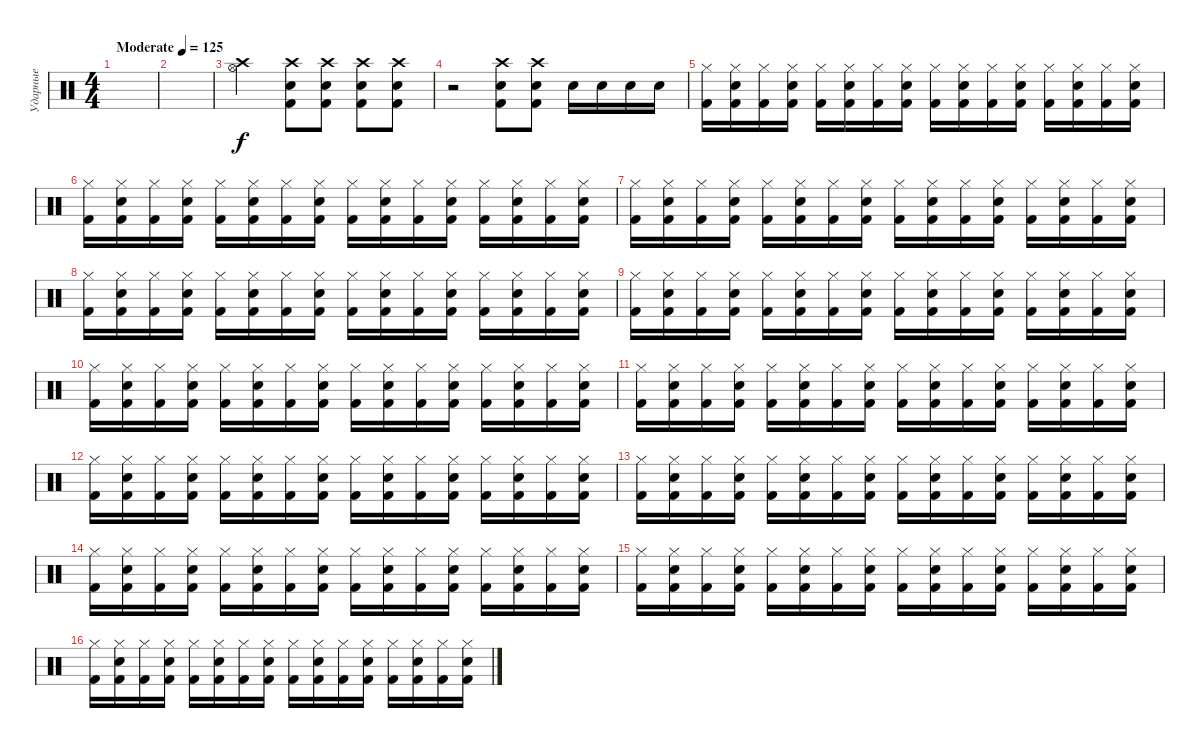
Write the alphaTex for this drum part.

\track ("Ударные" "Ударные") {instrument percussion}
\staff {score}
\articulation defaults
\ts (4 4)
\tempo (125 "Moderate")
\clef neutral
\ks c
|
|
("Crash high (hit)" "Hi-Hat (open)").2 ("Kick (hit) 2" "Snare (hit) 2" "Crash high (hit)").8 ("Kick (hit) 2" "Snare (hit) 2" "Crash high (hit)").8 ("Kick (hit) 2" "Snare (hit) 2" "Crash high (hit)").8 ("Kick (hit) 2" "Snare (hit) 2" "Crash high (hit)").8 |
r.2 ("Kick (hit) 2" "Snare (hit) 2" "Crash high (hit)").8 ("Kick (hit) 2" "Snare (hit) 2" "Crash high (hit)").8 "Snare (hit) 2".16 "Snare (hit) 2".16 "Snare (hit) 2".16 "Snare (hit) 2".16 |
("Kick (hit) 2" "Hi-Hat (closed)").16 ("Kick (hit) 2" "Hi-Hat (closed)" "Electric Snare (hit)").16 ("Kick (hit) 2" "Hi-Hat (closed)").16 ("Kick (hit) 2" "Hi-Hat (closed)" "Electric Snare (hit)").16 ("Kick (hit) 2" "Hi-Hat (closed)").16 ("Kick (hit) 2" "Hi-Hat (closed)" "Electric Snare (hit)").16 ("Kick (hit) 2" "Hi-Hat (closed)").16 ("Kick (hit) 2" "Hi-Hat (closed)" "Electric Snare (hit)").16 ("Kick (hit) 2" "Hi-Hat (closed)").16 ("Kick (hit) 2" "Hi-Hat (closed)" "Electric Snare (hit)").16 ("Kick (hit) 2" "Hi-Hat (closed)").16 ("Kick (hit) 2" "Hi-Hat (closed)" "Electric Snare (hit)").16 ("Kick (hit) 2" "Hi-Hat (closed)").16 ("Kick (hit) 2" "Hi-Hat (closed)" "Electric Snare (hit)").16 ("Kick (hit) 2" "Hi-Hat (closed)").16 ("Kick (hit) 2" "Hi-Hat (closed)" "Electric Snare (hit)").16 |
("Kick (hit) 2" "Hi-Hat (closed)").16 ("Kick (hit) 2" "Hi-Hat (closed)" "Electric Snare (hit)").16 ("Kick (hit) 2" "Hi-Hat (closed)").16 ("Kick (hit) 2" "Hi-Hat (closed)" "Electric Snare (hit)").16 ("Kick (hit) 2" "Hi-Hat (closed)").16 ("Kick (hit) 2" "Hi-Hat (closed)" "Electric Snare (hit)").16 ("Kick (hit) 2" "Hi-Hat (closed)").16 ("Kick (hit) 2" "Hi-Hat (closed)" "Electric Snare (hit)").16 ("Kick (hit) 2" "Hi-Hat (closed)").16 ("Kick (hit) 2" "Hi-Hat (closed)" "Electric Snare (hit)").16 ("Kick (hit) 2" "Hi-Hat (closed)").16 ("Kick (hit) 2" "Hi-Hat (closed)" "Electric Snare (hit)").16 ("Kick (hit) 2" "Hi-Hat (closed)").16 ("Kick (hit) 2" "Hi-Hat (closed)" "Electric Snare (hit)").16 ("Kick (hit) 2" "Hi-Hat (closed)").16 ("Kick (hit) 2" "Hi-Hat (closed)" "Electric Snare (hit)").16 |
("Kick (hit) 2" "Hi-Hat (closed)").16 ("Kick (hit) 2" "Hi-Hat (closed)" "Electric Snare (hit)").16 ("Kick (hit) 2" "Hi-Hat (closed)").16 ("Kick (hit) 2" "Hi-Hat (closed)" "Electric Snare (hit)").16 ("Kick (hit) 2" "Hi-Hat (closed)").16 ("Kick (hit) 2" "Hi-Hat (closed)" "Electric Snare (hit)").16 ("Kick (hit) 2" "Hi-Hat (closed)").16 ("Kick (hit) 2" "Hi-Hat (closed)" "Electric Snare (hit)").16 ("Kick (hit) 2" "Hi-Hat (closed)").16 ("Kick (hit) 2" "Hi-Hat (closed)" "Electric Snare (hit)").16 ("Kick (hit) 2" "Hi-Hat (closed)").16 ("Kick (hit) 2" "Hi-Hat (closed)" "Electric Snare (hit)").16 ("Kick (hit) 2" "Hi-Hat (closed)").16 ("Kick (hit) 2" "Hi-Hat (closed)" "Electric Snare (hit)").16 ("Kick (hit) 2" "Hi-Hat (closed)").16 ("Kick (hit) 2" "Hi-Hat (closed)" "Electric Snare (hit)").16 |
("Kick (hit) 2" "Hi-Hat (closed)").16 ("Kick (hit) 2" "Hi-Hat (closed)" "Electric Snare (hit)").16 ("Kick (hit) 2" "Hi-Hat (closed)").16 ("Kick (hit) 2" "Hi-Hat (closed)" "Electric Snare (hit)").16 ("Kick (hit) 2" "Hi-Hat (closed)").16 ("Kick (hit) 2" "Hi-Hat (closed)" "Electric Snare (hit)").16 ("Kick (hit) 2" "Hi-Hat (closed)").16 ("Kick (hit) 2" "Hi-Hat (closed)" "Electric Snare (hit)").16 ("Kick (hit) 2" "Hi-Hat (closed)").16 ("Kick (hit) 2" "Hi-Hat (closed)" "Electric Snare (hit)").16 ("Kick (hit) 2" "Hi-Hat (closed)").16 ("Kick (hit) 2" "Hi-Hat (closed)" "Electric Snare (hit)").16 ("Kick (hit) 2" "Hi-Hat (closed)").16 ("Kick (hit) 2" "Hi-Hat (closed)" "Electric Snare (hit)").16 ("Kick (hit) 2" "Hi-Hat (closed)").16 ("Kick (hit) 2" "Hi-Hat (closed)" "Electric Snare (hit)").16 |
("Kick (hit) 2" "Hi-Hat (closed)").16 ("Kick (hit) 2" "Hi-Hat (closed)" "Electric Snare (hit)").16 ("Kick (hit) 2" "Hi-Hat (closed)").16 ("Kick (hit) 2" "Hi-Hat (closed)" "Electric Snare (hit)").16 ("Kick (hit) 2" "Hi-Hat (closed)").16 ("Kick (hit) 2" "Hi-Hat (closed)" "Electric Snare (hit)").16 ("Kick (hit) 2" "Hi-Hat (closed)").16 ("Kick (hit) 2" "Hi-Hat (closed)" "Electric Snare (hit)").16 ("Kick (hit) 2" "Hi-Hat (closed)").16 ("Kick (hit) 2" "Hi-Hat (closed)" "Electric Snare (hit)").16 ("Kick (hit) 2" "Hi-Hat (closed)").16 ("Kick (hit) 2" "Hi-Hat (closed)" "Electric Snare (hit)").16 ("Kick (hit) 2" "Hi-Hat (closed)").16 ("Kick (hit) 2" "Hi-Hat (closed)" "Electric Snare (hit)").16 ("Kick (hit) 2" "Hi-Hat (closed)").16 ("Kick (hit) 2" "Hi-Hat (closed)" "Electric Snare (hit)").16 |
("Kick (hit) 2" "Hi-Hat (closed)").16 ("Kick (hit) 2" "Hi-Hat (closed)" "Electric Snare (hit)").16 ("Kick (hit) 2" "Hi-Hat (closed)").16 ("Kick (hit) 2" "Hi-Hat (closed)" "Electric Snare (hit)").16 ("Kick (hit) 2" "Hi-Hat (closed)").16 ("Kick (hit) 2" "Hi-Hat (closed)" "Electric Snare (hit)").16 ("Kick (hit) 2" "Hi-Hat (closed)").16 ("Kick (hit) 2" "Hi-Hat (closed)" "Electric Snare (hit)").16 ("Kick (hit) 2" "Hi-Hat (closed)").16 ("Kick (hit) 2" "Hi-Hat (closed)" "Electric Snare (hit)").16 ("Kick (hit) 2" "Hi-Hat (closed)").16 ("Kick (hit) 2" "Hi-Hat (closed)" "Electric Snare (hit)").16 ("Kick (hit) 2" "Hi-Hat (closed)").16 ("Kick (hit) 2" "Hi-Hat (closed)" "Electric Snare (hit)").16 ("Kick (hit) 2" "Hi-Hat (closed)").16 ("Kick (hit) 2" "Hi-Hat (closed)" "Electric Snare (hit)").16 |
("Kick (hit) 2" "Hi-Hat (closed)").16 ("Kick (hit) 2" "Hi-Hat (closed)" "Electric Snare (hit)").16 ("Kick (hit) 2" "Hi-Hat (closed)").16 ("Kick (hit) 2" "Hi-Hat (closed)" "Electric Snare (hit)").16 ("Kick (hit) 2" "Hi-Hat (closed)").16 ("Kick (hit) 2" "Hi-Hat (closed)" "Electric Snare (hit)").16 ("Kick (hit) 2" "Hi-Hat (closed)").16 ("Kick (hit) 2" "Hi-Hat (closed)" "Electric Snare (hit)").16 ("Kick (hit) 2" "Hi-Hat (closed)").16 ("Kick (hit) 2" "Hi-Hat (closed)" "Electric Snare (hit)").16 ("Kick (hit) 2" "Hi-Hat (closed)").16 ("Kick (hit) 2" "Hi-Hat (closed)" "Electric Snare (hit)").16 ("Kick (hit) 2" "Hi-Hat (closed)").16 ("Kick (hit) 2" "Hi-Hat (closed)" "Electric Snare (hit)").16 ("Kick (hit) 2" "Hi-Hat (closed)").16 ("Kick (hit) 2" "Hi-Hat (closed)" "Electric Snare (hit)").16 |
("Kick (hit) 2" "Hi-Hat (closed)").16 ("Kick (hit) 2" "Hi-Hat (closed)" "Electric Snare (hit)").16 ("Kick (hit) 2" "Hi-Hat (closed)").16 ("Kick (hit) 2" "Hi-Hat (closed)" "Electric Snare (hit)").16 ("Kick (hit) 2" "Hi-Hat (closed)").16 ("Kick (hit) 2" "Hi-Hat (closed)" "Electric Snare (hit)").16 ("Kick (hit) 2" "Hi-Hat (closed)").16 ("Kick (hit) 2" "Hi-Hat (closed)" "Electric Snare (hit)").16 ("Kick (hit) 2" "Hi-Hat (closed)").16 ("Kick (hit) 2" "Hi-Hat (closed)" "Electric Snare (hit)").16 ("Kick (hit) 2" "Hi-Hat (closed)").16 ("Kick (hit) 2" "Hi-Hat (closed)" "Electric Snare (hit)").16 ("Kick (hit) 2" "Hi-Hat (closed)").16 ("Kick (hit) 2" "Hi-Hat (closed)" "Electric Snare (hit)").16 ("Kick (hit) 2" "Hi-Hat (closed)").16 ("Kick (hit) 2" "Hi-Hat (closed)" "Electric Snare (hit)").16 |
("Kick (hit) 2" "Hi-Hat (closed)").16 ("Kick (hit) 2" "Hi-Hat (closed)" "Electric Snare (hit)").16 ("Kick (hit) 2" "Hi-Hat (closed)").16 ("Kick (hit) 2" "Hi-Hat (closed)" "Electric Snare (hit)").16 ("Kick (hit) 2" "Hi-Hat (closed)").16 ("Kick (hit) 2" "Hi-Hat (closed)" "Electric Snare (hit)").16 ("Kick (hit) 2" "Hi-Hat (closed)").16 ("Kick (hit) 2" "Hi-Hat (closed)" "Electric Snare (hit)").16 ("Kick (hit) 2" "Hi-Hat (closed)").16 ("Kick (hit) 2" "Hi-Hat (closed)" "Electric Snare (hit)").16 ("Kick (hit) 2" "Hi-Hat (closed)").16 ("Kick (hit) 2" "Hi-Hat (closed)" "Electric Snare (hit)").16 ("Kick (hit) 2" "Hi-Hat (closed)").16 ("Kick (hit) 2" "Hi-Hat (closed)" "Electric Snare (hit)").16 ("Kick (hit) 2" "Hi-Hat (closed)").16 ("Kick (hit) 2" "Hi-Hat (closed)" "Electric Snare (hit)").16 |
("Kick (hit) 2" "Hi-Hat (closed)").16 ("Kick (hit) 2" "Hi-Hat (closed)" "Electric Snare (hit)").16 ("Kick (hit) 2" "Hi-Hat (closed)").16 ("Kick (hit) 2" "Hi-Hat (closed)" "Electric Snare (hit)").16 ("Kick (hit) 2" "Hi-Hat (closed)").16 ("Kick (hit) 2" "Hi-Hat (closed)" "Electric Snare (hit)").16 ("Kick (hit) 2" "Hi-Hat (closed)").16 ("Kick (hit) 2" "Hi-Hat (closed)" "Electric Snare (hit)").16 ("Kick (hit) 2" "Hi-Hat (closed)").16 ("Kick (hit) 2" "Hi-Hat (closed)" "Electric Snare (hit)").16 ("Kick (hit) 2" "Hi-Hat (closed)").16 ("Kick (hit) 2" "Hi-Hat (closed)" "Electric Snare (hit)").16 ("Kick (hit) 2" "Hi-Hat (closed)").16 ("Kick (hit) 2" "Hi-Hat (closed)" "Electric Snare (hit)").16 ("Kick (hit) 2" "Hi-Hat (closed)").16 ("Kick (hit) 2" "Hi-Hat (closed)" "Electric Snare (hit)").16 |
("Kick (hit) 2" "Hi-Hat (closed)").16 ("Kick (hit) 2" "Hi-Hat (closed)" "Electric Snare (hit)").16 ("Kick (hit) 2" "Hi-Hat (closed)").16 ("Kick (hit) 2" "Hi-Hat (closed)" "Electric Snare (hit)").16 ("Kick (hit) 2" "Hi-Hat (closed)").16 ("Kick (hit) 2" "Hi-Hat (closed)" "Electric Snare (hit)").16 ("Kick (hit) 2" "Hi-Hat (closed)").16 ("Kick (hit) 2" "Hi-Hat (closed)" "Electric Snare (hit)").16 ("Kick (hit) 2" "Hi-Hat (closed)").16 ("Kick (hit) 2" "Hi-Hat (closed)" "Electric Snare (hit)").16 ("Kick (hit) 2" "Hi-Hat (closed)").16 ("Kick (hit) 2" "Hi-Hat (closed)" "Electric Snare (hit)").16 ("Kick (hit) 2" "Hi-Hat (closed)").16 ("Kick (hit) 2" "Hi-Hat (closed)" "Electric Snare (hit)").16 ("Kick (hit) 2" "Hi-Hat (closed)").16 ("Kick (hit) 2" "Hi-Hat (closed)" "Electric Snare (hit)").16 |
("Kick (hit) 2" "Hi-Hat (closed)").16 ("Kick (hit) 2" "Hi-Hat (closed)" "Electric Snare (hit)").16 ("Kick (hit) 2" "Hi-Hat (closed)").16 ("Kick (hit) 2" "Hi-Hat (closed)" "Electric Snare (hit)").16 ("Kick (hit) 2" "Hi-Hat (closed)").16 ("Kick (hit) 2" "Hi-Hat (closed)" "Electric Snare (hit)").16 ("Kick (hit) 2" "Hi-Hat (closed)").16 ("Kick (hit) 2" "Hi-Hat (closed)" "Electric Snare (hit)").16 ("Kick (hit) 2" "Hi-Hat (closed)").16 ("Kick (hit) 2" "Hi-Hat (closed)" "Electric Snare (hit)").16 ("Kick (hit) 2" "Hi-Hat (closed)").16 ("Kick (hit) 2" "Hi-Hat (closed)" "Electric Snare (hit)").16 ("Kick (hit) 2" "Hi-Hat (closed)").16 ("Kick (hit) 2" "Hi-Hat (closed)" "Electric Snare (hit)").16 ("Kick (hit) 2" "Hi-Hat (closed)").16 ("Kick (hit) 2" "Hi-Hat (closed)" "Electric Snare (hit)").16
